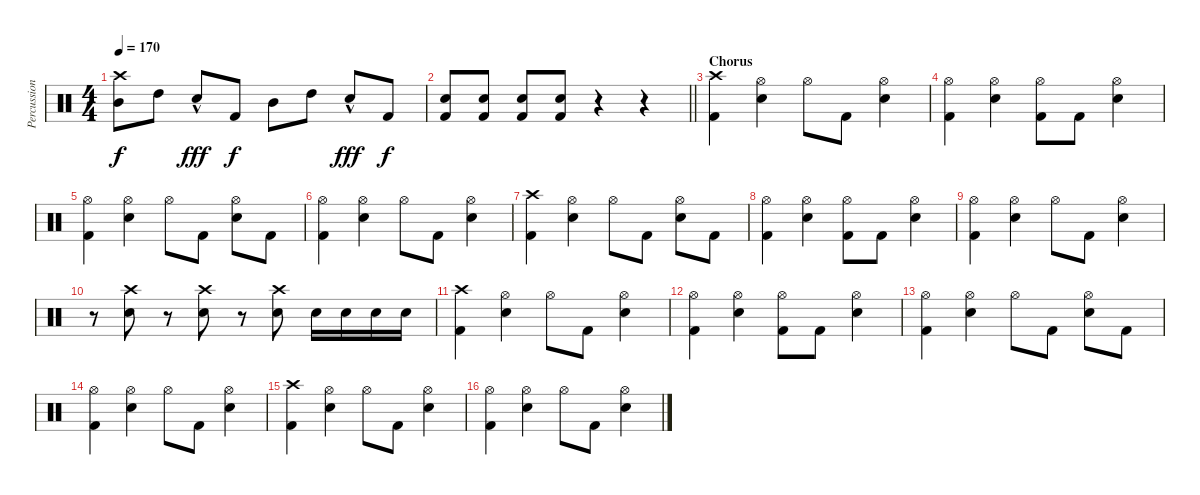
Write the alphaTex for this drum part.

\track ("Percussion" "Percussion") {instrument percussion}
\staff {score}
\articulation defaults
\ts (4 4)
\tempo 170
\clef neutral
\ks c
("Crash high (hit)" "Mid Tom (hit)").8{dy f} "High Tom (hit)".8 "Snare (hit) 2"{hac}.8{dy fff} "Kick (hit) 2".8{dy f} "Mid Tom (hit)".8 "High Tom (hit)".8 "Snare (hit) 2"{hac}.8{dy fff} "Kick (hit) 2".8{dy f} |
\barLineRight lightlight
("Snare (hit) 2" "Kick (hit) 2").8 ("Snare (hit) 2" "Kick (hit) 2").8 ("Snare (hit) 2" "Kick (hit) 2").8 ("Snare (hit) 2" "Kick (hit) 2").8 r.4 r.4 |
\section ("" "Chorus")
("Crash high (hit)" "Kick (hit) 2").4 ("Hi-Hat (open)" "Snare (hit) 2").4 "Hi-Hat (open)".8 "Kick (hit) 2".8 ("Hi-Hat (open)" "Snare (hit) 2").4 |
("Hi-Hat (open)" "Kick (hit) 2").4 ("Hi-Hat (open)" "Snare (hit) 2").4 ("Hi-Hat (open)" "Kick (hit) 2").8 "Kick (hit) 2".8 ("Hi-Hat (open)" "Snare (hit) 2").4 |
("Hi-Hat (open)" "Kick (hit) 2").4 ("Hi-Hat (open)" "Snare (hit) 2").4 "Hi-Hat (open)".8 "Kick (hit) 2".8 ("Hi-Hat (open)" "Snare (hit) 2").8 "Kick (hit) 2".8 |
("Hi-Hat (open)" "Kick (hit) 2").4 ("Hi-Hat (open)" "Snare (hit) 2").4 "Hi-Hat (open)".8 "Kick (hit) 2".8 ("Hi-Hat (open)" "Snare (hit) 2").4 |
("Crash high (hit)" "Kick (hit) 2").4 ("Hi-Hat (open)" "Snare (hit) 2").4 "Hi-Hat (open)".8 "Kick (hit) 2".8 ("Hi-Hat (open)" "Snare (hit) 2").8 "Kick (hit) 2".8 |
("Hi-Hat (open)" "Kick (hit) 2").4 ("Hi-Hat (open)" "Snare (hit) 2").4 ("Hi-Hat (open)" "Kick (hit) 2").8 "Kick (hit) 2".8 ("Hi-Hat (open)" "Snare (hit) 2").4 |
("Hi-Hat (open)" "Kick (hit) 2").4 ("Hi-Hat (open)" "Snare (hit) 2").4 "Hi-Hat (open)".8 "Kick (hit) 2".8 ("Hi-Hat (open)" "Snare (hit) 2").4 |
r.8 ("Crash high (hit)" "Snare (hit) 2").8 r.8 ("Crash high (hit)" "Snare (hit) 2").8 r.8 ("Crash high (hit)" "Snare (hit) 2").8 "Snare (hit) 2".16 "Snare (hit) 2".16 "Snare (hit) 2".16 "Snare (hit) 2".16 |
("Crash high (hit)" "Kick (hit) 2").4 ("Hi-Hat (open)" "Snare (hit) 2").4 "Hi-Hat (open)".8 "Kick (hit) 2".8 ("Hi-Hat (open)" "Snare (hit) 2").4 |
("Hi-Hat (open)" "Kick (hit) 2").4 ("Hi-Hat (open)" "Snare (hit) 2").4 ("Hi-Hat (open)" "Kick (hit) 2").8 "Kick (hit) 2".8 ("Hi-Hat (open)" "Snare (hit) 2").4 |
("Hi-Hat (open)" "Kick (hit) 2").4 ("Hi-Hat (open)" "Snare (hit) 2").4 "Hi-Hat (open)".8 "Kick (hit) 2".8 ("Hi-Hat (open)" "Snare (hit) 2").8 "Kick (hit) 2".8 |
("Hi-Hat (open)" "Kick (hit) 2").4 ("Hi-Hat (open)" "Snare (hit) 2").4 "Hi-Hat (open)".8 "Kick (hit) 2".8 ("Hi-Hat (open)" "Snare (hit) 2").4 |
("Crash high (hit)" "Kick (hit) 2").4 ("Hi-Hat (open)" "Snare (hit) 2").4 "Hi-Hat (open)".8 "Kick (hit) 2".8 ("Hi-Hat (open)" "Snare (hit) 2").4 |
("Hi-Hat (open)" "Kick (hit) 2").4 ("Hi-Hat (open)" "Snare (hit) 2").4 "Hi-Hat (open)".8 "Kick (hit) 2".8 ("Hi-Hat (open)" "Snare (hit) 2").4
